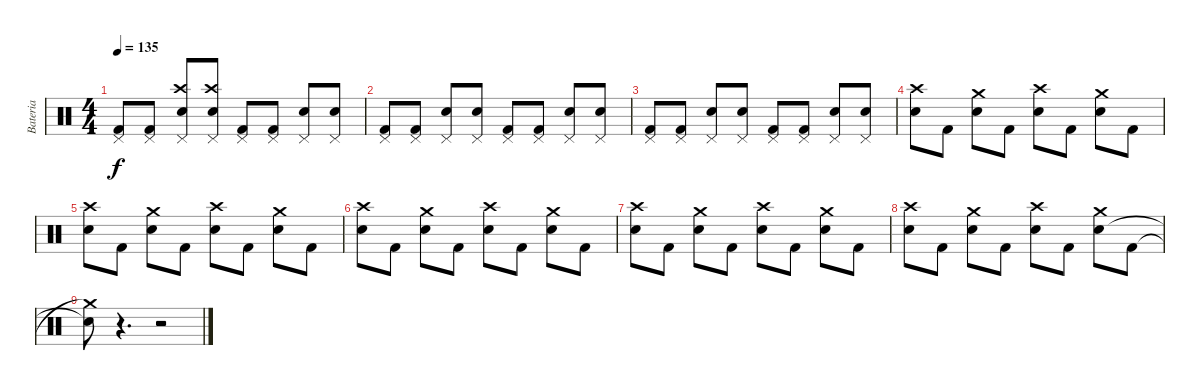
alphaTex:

\track ("Bateria" "Bateria") {instrument percussion}
\staff {score}
\articulation defaults
\ts (4 4)
\tempo 135
\clef neutral
\ks c
("Pedal Hi-Hat (hit)" "Kick (hit) 2").8{dy f} ("Pedal Hi-Hat (hit)" "Kick (hit) 2").8 ("Crash high (hit)" "Pedal Hi-Hat (hit)" "Electric Snare (hit)").8 ("Crash high (hit)" "Pedal Hi-Hat (hit)" "Electric Snare (hit)").8 ("Pedal Hi-Hat (hit)" "Kick (hit) 2").8 ("Pedal Hi-Hat (hit)" "Kick (hit) 2").8 ("Pedal Hi-Hat (hit)" "Electric Snare (hit)").8 ("Pedal Hi-Hat (hit)" "Electric Snare (hit)").8 |
("Pedal Hi-Hat (hit)" "Kick (hit) 2").8 ("Pedal Hi-Hat (hit)" "Kick (hit) 2").8 ("Pedal Hi-Hat (hit)" "Electric Snare (hit)").8 ("Pedal Hi-Hat (hit)" "Electric Snare (hit)").8 ("Pedal Hi-Hat (hit)" "Kick (hit) 2").8 ("Pedal Hi-Hat (hit)" "Kick (hit) 2").8 ("Pedal Hi-Hat (hit)" "Electric Snare (hit)").8 ("Pedal Hi-Hat (hit)" "Electric Snare (hit)").8 |
("Pedal Hi-Hat (hit)" "Kick (hit) 2").8 ("Pedal Hi-Hat (hit)" "Kick (hit) 2").8 ("Pedal Hi-Hat (hit)" "Electric Snare (hit)").8 ("Pedal Hi-Hat (hit)" "Electric Snare (hit)").8 ("Pedal Hi-Hat (hit)" "Kick (hit) 2").8 ("Pedal Hi-Hat (hit)" "Kick (hit) 2").8 ("Pedal Hi-Hat (hit)" "Electric Snare (hit)").8 ("Pedal Hi-Hat (hit)" "Electric Snare (hit)").8 |
("Crash high (hit)" "Electric Snare (hit)").8 "Kick (hit) 2".8 ("Crash medium (hit)" "Electric Snare (hit)").8 "Kick (hit) 2".8 ("Crash high (hit)" "Electric Snare (hit)").8 "Kick (hit) 2".8 ("Crash medium (hit)" "Electric Snare (hit)").8 "Kick (hit) 2".8 |
("Crash high (hit)" "Electric Snare (hit)").8 "Kick (hit) 2".8 ("Crash medium (hit)" "Electric Snare (hit)").8 "Kick (hit) 2".8 ("Crash high (hit)" "Electric Snare (hit)").8 "Kick (hit) 2".8 ("Crash medium (hit)" "Electric Snare (hit)").8 "Kick (hit) 2".8 |
("Crash high (hit)" "Electric Snare (hit)").8 "Kick (hit) 2".8 ("Crash medium (hit)" "Electric Snare (hit)").8 "Kick (hit) 2".8 ("Crash high (hit)" "Electric Snare (hit)").8 "Kick (hit) 2".8 ("Crash medium (hit)" "Electric Snare (hit)").8 "Kick (hit) 2".8 |
("Crash high (hit)" "Electric Snare (hit)").8 "Kick (hit) 2".8 ("Crash medium (hit)" "Electric Snare (hit)").8 "Kick (hit) 2".8 ("Crash high (hit)" "Electric Snare (hit)").8 "Kick (hit) 2".8 ("Crash medium (hit)" "Electric Snare (hit)").8 "Kick (hit) 2".8 |
("Crash high (hit)" "Electric Snare (hit)").8 "Kick (hit) 2".8 ("Crash medium (hit)" "Electric Snare (hit)").8 "Kick (hit) 2".8 ("Crash high (hit)" "Electric Snare (hit)").8 "Kick (hit) 2".8 ("Crash medium (hit)" "Electric Snare (hit)").8 "Kick (hit) 2".8 |
("Crash medium (hit)"{t} "Electric Snare (hit)"{t}).8 r.4{d} r.2
